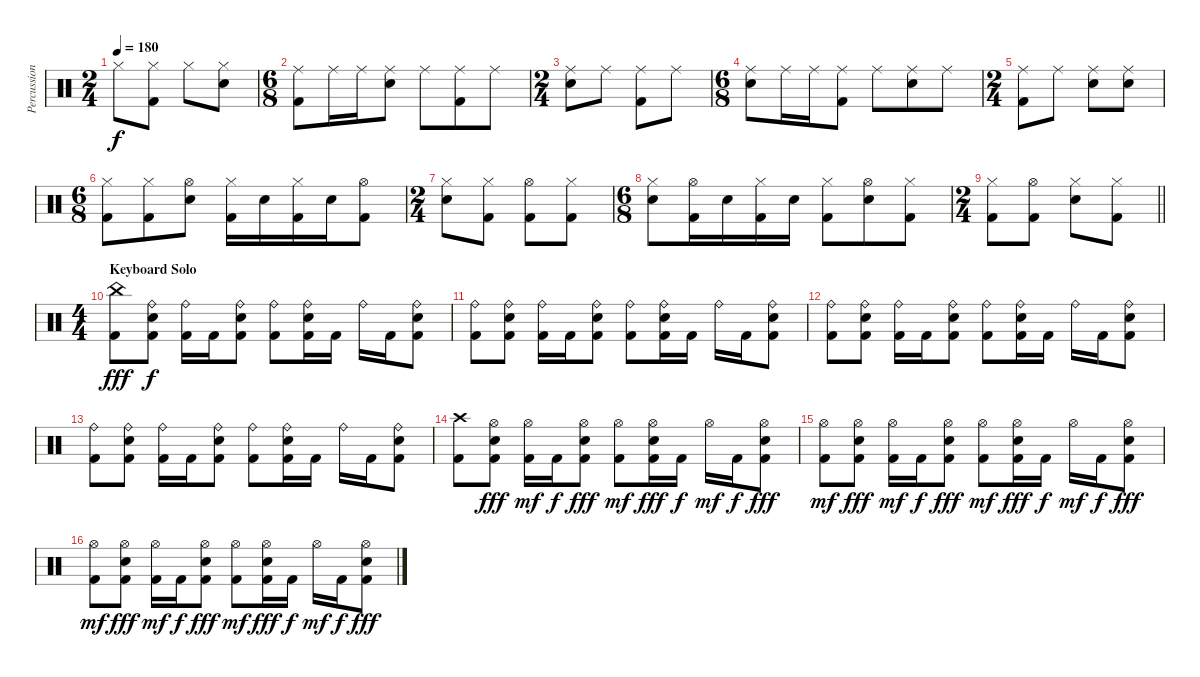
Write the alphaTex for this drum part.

\track ("Percussion" "Percussion") {instrument percussion}
\staff {score}
\articulation defaults
\ts (2 4)
\tempo 180
\clef neutral
\ks c "Hi-Hat (closed)".8{dy f}
("Hi-Hat (closed)" "Kick (hit) 2").8 "Hi-Hat (closed)".8 ("Hi-Hat (closed)" "Electric Snare (hit)").8 |
\ts (6 8)
("Ride (middle)" "Kick (hit) 2").8 "Ride (middle)".16 "Ride (middle)".16 ("Ride (middle)" "Electric Snare (hit)").8 "Ride (middle)".8 ("Ride (middle)" "Kick (hit) 2").8 "Ride (middle)".8 |
\ts (2 4)
("Ride (middle)" "Electric Snare (hit)").8 "Ride (middle)".8 ("Ride (middle)" "Kick (hit) 2").8 "Ride (middle)".8 |
\ts (6 8)
("Ride (middle)" "Electric Snare (hit)").8 "Ride (middle)".16 "Ride (middle)".16 ("Ride (middle)" "Kick (hit) 2").8 "Ride (middle)".8 ("Ride (middle)" "Electric Snare (hit)").8 "Ride (middle)".8 |
\ts (2 4)
("Ride (middle)" "Kick (hit) 2").8 "Ride (middle)".8 ("Ride (middle)" "Electric Snare (hit)").8 ("Ride (middle)" "Electric Snare (hit)").8 |
\ts (6 8)
("Hi-Hat (closed)" "Kick (hit) 2").8 ("Hi-Hat (closed)" "Kick (hit) 2").8 ("Hi-Hat (open)" "Electric Snare (hit)").8 ("Hi-Hat (closed)" "Kick (hit) 2").16 "Electric Snare (hit)".16 ("Hi-Hat (closed)" "Kick (hit) 2").16 "Electric Snare (hit)".16 ("Hi-Hat (open)" "Kick (hit) 2").8 |
\ts (2 4)
("Hi-Hat (closed)" "Electric Snare (hit)").8 ("Hi-Hat (closed)" "Kick (hit) 2").8 ("Hi-Hat (open)" "Kick (hit) 2").8 ("Hi-Hat (closed)" "Kick (hit) 2").8 |
\ts (6 8)
("Hi-Hat (closed)" "Electric Snare (hit)").8 ("Hi-Hat (open)" "Kick (hit) 2").16 "Electric Snare (hit)".16 ("Hi-Hat (closed)" "Kick (hit) 2").16 "Electric Snare (hit)".16 ("Hi-Hat (closed)" "Kick (hit) 2").8 ("Hi-Hat (open)" "Electric Snare (hit)").8 ("Hi-Hat (closed)" "Kick (hit) 2").8 |
\ts (2 4)
\barLineRight lightlight
("Hi-Hat (closed)" "Kick (hit) 2").8 ("Hi-Hat (open)" "Kick (hit) 2").8 ("Hi-Hat (closed)" "Electric Snare (hit)").8 ("Hi-Hat (closed)" "Kick (hit) 2").8 |
\ts (4 4)
\section ("" "Keyboard Solo")
("China (hit)" "Kick (hit) 2").8{dy fff} ("Ride (bell)" "Electric Snare (hit)" "Kick (hit) 2").8{dy f} ("Ride (bell)" "Kick (hit) 2").16 "Kick (hit) 2".16 ("Ride (bell)" "Electric Snare (hit)" "Kick (hit) 2").8 ("Ride (bell)" "Kick (hit) 2").8 ("Ride (bell)" "Electric Snare (hit)" "Kick (hit) 2").16 "Kick (hit) 2".16 "Ride (bell)".16 "Kick (hit) 2".16 ("Ride (bell)" "Electric Snare (hit)" "Kick (hit) 2").8 |
("Ride (bell)" "Kick (hit) 2").8 ("Ride (bell)" "Electric Snare (hit)" "Kick (hit) 2").8 ("Ride (bell)" "Kick (hit) 2").16 "Kick (hit) 2".16 ("Ride (bell)" "Electric Snare (hit)" "Kick (hit) 2").8 ("Ride (bell)" "Kick (hit) 2").8 ("Ride (bell)" "Electric Snare (hit)" "Kick (hit) 2").16 "Kick (hit) 2".16 "Ride (bell)".16 "Kick (hit) 2".16 ("Ride (bell)" "Electric Snare (hit)" "Kick (hit) 2").8 |
("Ride (bell)" "Kick (hit) 2").8 ("Ride (bell)" "Electric Snare (hit)" "Kick (hit) 2").8 ("Ride (bell)" "Kick (hit) 2").16 "Kick (hit) 2".16 ("Ride (bell)" "Electric Snare (hit)" "Kick (hit) 2").8 ("Ride (bell)" "Kick (hit) 2").8 ("Ride (bell)" "Electric Snare (hit)" "Kick (hit) 2").16 "Kick (hit) 2".16 "Ride (bell)".16 "Kick (hit) 2".16 ("Ride (bell)" "Electric Snare (hit)" "Kick (hit) 2").8 |
("Ride (bell)" "Kick (hit) 2").8 ("Ride (bell)" "Electric Snare (hit)" "Kick (hit) 2").8 ("Ride (bell)" "Kick (hit) 2").16 "Kick (hit) 2".16 ("Ride (bell)" "Electric Snare (hit)" "Kick (hit) 2").8 ("Ride (bell)" "Kick (hit) 2").8 ("Ride (bell)" "Electric Snare (hit)" "Kick (hit) 2").16 "Kick (hit) 2".16 "Ride (bell)".16 "Kick (hit) 2".16 ("Ride (bell)" "Electric Snare (hit)" "Kick (hit) 2").8 |
("Crash high (hit)" "Kick (hit) 2").8 ("Hi-Hat (open)" "Electric Snare (hit)" "Kick (hit) 2").8{dy fff} ("Hi-Hat (open)" "Kick (hit) 2").16{dy mf} "Kick (hit) 2".16{dy f} ("Hi-Hat (open)" "Electric Snare (hit)" "Kick (hit) 2").8{dy fff} ("Hi-Hat (open)" "Kick (hit) 2").8{dy mf} ("Hi-Hat (open)" "Electric Snare (hit)" "Kick (hit) 2").16{dy fff} "Kick (hit) 2".16{dy f} "Hi-Hat (open)".16{dy mf} "Kick (hit) 2".16{dy f} ("Hi-Hat (open)" "Electric Snare (hit)" "Kick (hit) 2").8{dy fff} |
("Hi-Hat (open)" "Kick (hit) 2").8{dy mf} ("Hi-Hat (open)" "Electric Snare (hit)" "Kick (hit) 2").8{dy fff} ("Hi-Hat (open)" "Kick (hit) 2").16{dy mf} "Kick (hit) 2".16{dy f} ("Hi-Hat (open)" "Electric Snare (hit)" "Kick (hit) 2").8{dy fff} ("Hi-Hat (open)" "Kick (hit) 2").8{dy mf} ("Hi-Hat (open)" "Electric Snare (hit)" "Kick (hit) 2").16{dy fff} "Kick (hit) 2".16{dy f} "Hi-Hat (open)".16{dy mf} "Kick (hit) 2".16{dy f} ("Hi-Hat (open)" "Electric Snare (hit)" "Kick (hit) 2").8{dy fff} |
("Hi-Hat (open)" "Kick (hit) 2").8{dy mf} ("Hi-Hat (open)" "Electric Snare (hit)" "Kick (hit) 2").8{dy fff} ("Hi-Hat (open)" "Kick (hit) 2").16{dy mf} "Kick (hit) 2".16{dy f} ("Hi-Hat (open)" "Electric Snare (hit)" "Kick (hit) 2").8{dy fff} ("Hi-Hat (open)" "Kick (hit) 2").8{dy mf} ("Hi-Hat (open)" "Electric Snare (hit)" "Kick (hit) 2").16{dy fff} "Kick (hit) 2".16{dy f} "Hi-Hat (open)".16{dy mf} "Kick (hit) 2".16{dy f} ("Hi-Hat (open)" "Electric Snare (hit)" "Kick (hit) 2").8{dy fff}
